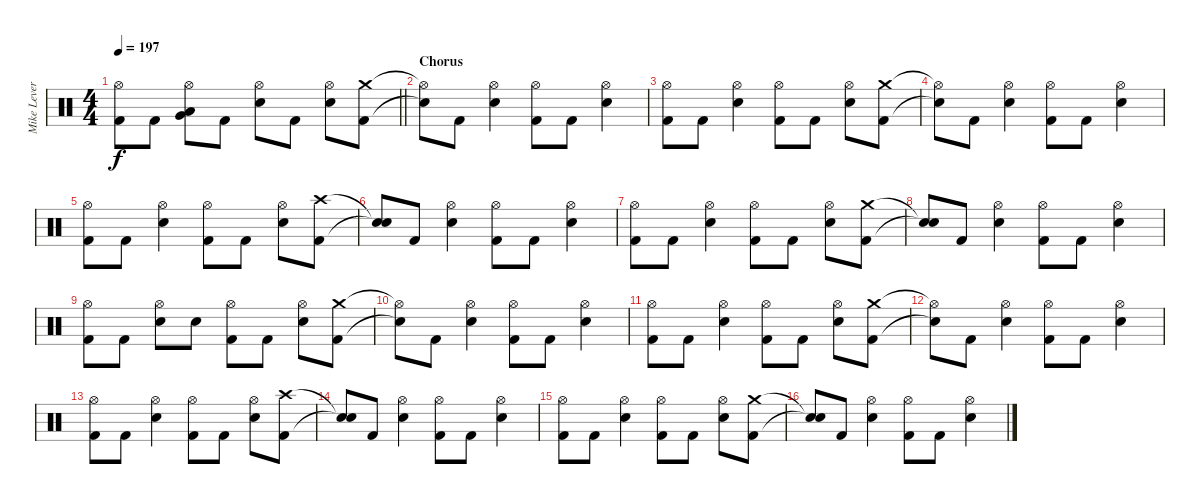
\track ("Mike Leverence - Drums" "Mike Lever") {instrument percussion}
\staff {score}
\articulation defaults
\ts (4 4)
\tempo 197
\clef neutral
\barLineRight lightlight
\ks c
("Hi-Hat (open)" "Kick (hit) 2").8{dy f} "Kick (hit) 2".8 ("Hi-Hat (open)" "Low Tom (hit)" "Very Low Tom (hit)").8 "Kick (hit) 2".8 ("Hi-Hat (open)" "Electric Snare (hit)").8 "Kick (hit) 2".8 ("Hi-Hat (open)" "Electric Snare (hit)").8 ("Crash medium (hit)" "Kick (hit) 2").8 |
\section ("" "Chorus")
("Hi-Hat (open)"{t} "Snare (hit)"{t}).8 "Kick (hit) 2".8 ("Hi-Hat (open)" "Electric Snare (hit)").4 ("Hi-Hat (open)" "Kick (hit) 2").8 "Kick (hit) 2".8 ("Hi-Hat (open)" "Electric Snare (hit)").4 |
("Hi-Hat (open)" "Kick (hit) 2").8 "Kick (hit) 2".8 ("Hi-Hat (open)" "Electric Snare (hit)").4 ("Hi-Hat (open)" "Kick (hit) 2").8 "Kick (hit) 2".8 ("Hi-Hat (open)" "Electric Snare (hit)").8 ("Crash medium (hit)" "Kick (hit) 2").8 |
("Hi-Hat (open)"{t} "Snare (hit)"{t}).8 "Kick (hit) 2".8 ("Hi-Hat (open)" "Electric Snare (hit)").4 ("Hi-Hat (open)" "Kick (hit) 2").8 "Kick (hit) 2".8 ("Hi-Hat (open)" "Electric Snare (hit)").4 |
("Hi-Hat (open)" "Kick (hit) 2").8 "Kick (hit) 2".8 ("Hi-Hat (open)" "Electric Snare (hit)").4 ("Hi-Hat (open)" "Kick (hit) 2").8 "Kick (hit) 2".8 ("Hi-Hat (open)" "Electric Snare (hit)").8 ("Crash high (hit)" "Kick (hit) 2").8 |
("Snare (hit)"{t} "Snare (hit)"{t}).8 "Kick (hit) 2".8 ("Hi-Hat (open)" "Electric Snare (hit)").4 ("Hi-Hat (open)" "Kick (hit) 2").8 "Kick (hit) 2".8 ("Hi-Hat (open)" "Electric Snare (hit)").4 |
("Hi-Hat (open)" "Kick (hit) 2").8 "Kick (hit) 2".8 ("Hi-Hat (open)" "Electric Snare (hit)").4 ("Hi-Hat (open)" "Kick (hit) 2").8 "Kick (hit) 2".8 ("Hi-Hat (open)" "Electric Snare (hit)").8 ("Crash medium (hit)" "Kick (hit) 2").8 |
("Snare (hit)"{t} "Snare (hit)"{t}).8 "Kick (hit) 2".8 ("Hi-Hat (open)" "Electric Snare (hit)").4 ("Hi-Hat (open)" "Kick (hit) 2").8 "Kick (hit) 2".8 ("Hi-Hat (open)" "Electric Snare (hit)").4 |
("Hi-Hat (open)" "Kick (hit) 2").8 "Kick (hit) 2".8 ("Hi-Hat (open)" "Electric Snare (hit)").8 "Electric Snare (hit)".8 ("Hi-Hat (open)" "Kick (hit) 2").8 "Kick (hit) 2".8 ("Hi-Hat (open)" "Electric Snare (hit)").8 ("Crash medium (hit)" "Kick (hit) 2").8 |
("Hi-Hat (open)"{t} "Snare (hit)"{t}).8 "Kick (hit) 2".8 ("Hi-Hat (open)" "Electric Snare (hit)").4 ("Hi-Hat (open)" "Kick (hit) 2").8 "Kick (hit) 2".8 ("Hi-Hat (open)" "Electric Snare (hit)").4 |
("Hi-Hat (open)" "Kick (hit) 2").8 "Kick (hit) 2".8 ("Hi-Hat (open)" "Electric Snare (hit)").4 ("Hi-Hat (open)" "Kick (hit) 2").8 "Kick (hit) 2".8 ("Hi-Hat (open)" "Electric Snare (hit)").8 ("Crash medium (hit)" "Kick (hit) 2").8 |
("Hi-Hat (open)"{t} "Snare (hit)"{t}).8 "Kick (hit) 2".8 ("Hi-Hat (open)" "Electric Snare (hit)").4 ("Hi-Hat (open)" "Kick (hit) 2").8 "Kick (hit) 2".8 ("Hi-Hat (open)" "Electric Snare (hit)").4 |
("Hi-Hat (open)" "Kick (hit) 2").8 "Kick (hit) 2".8 ("Hi-Hat (open)" "Electric Snare (hit)").4 ("Hi-Hat (open)" "Kick (hit) 2").8 "Kick (hit) 2".8 ("Hi-Hat (open)" "Electric Snare (hit)").8 ("Crash high (hit)" "Kick (hit) 2").8 |
("Snare (hit)"{t} "Snare (hit)"{t}).8 "Kick (hit) 2".8 ("Hi-Hat (open)" "Electric Snare (hit)").4 ("Hi-Hat (open)" "Kick (hit) 2").8 "Kick (hit) 2".8 ("Hi-Hat (open)" "Electric Snare (hit)").4 |
("Hi-Hat (open)" "Kick (hit) 2").8 "Kick (hit) 2".8 ("Hi-Hat (open)" "Electric Snare (hit)").4 ("Hi-Hat (open)" "Kick (hit) 2").8 "Kick (hit) 2".8 ("Hi-Hat (open)" "Electric Snare (hit)").8 ("Crash medium (hit)" "Kick (hit) 2").8 |
("Snare (hit)"{t} "Snare (hit)"{t}).8 "Kick (hit) 2".8 ("Hi-Hat (open)" "Electric Snare (hit)").4 ("Hi-Hat (open)" "Kick (hit) 2").8 "Kick (hit) 2".8 ("Hi-Hat (open)" "Electric Snare (hit)").4
